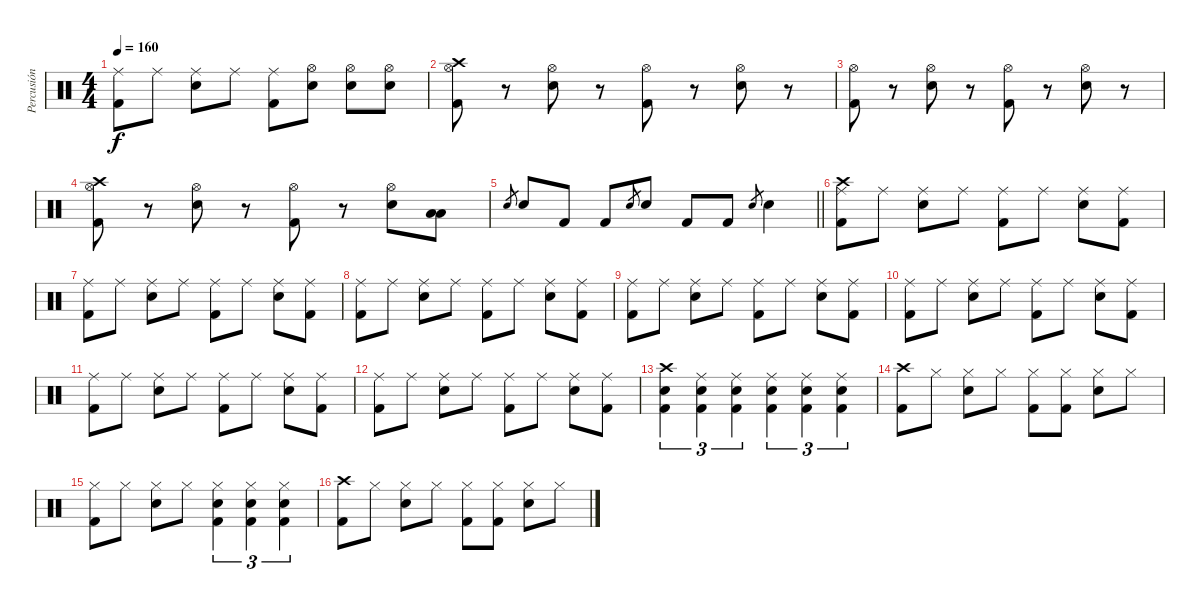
\track ("Percusión" "Percusión") {instrument percussion}
\staff {score}
\articulation defaults
\ts (4 4)
\tempo 160
\clef neutral
\ks c
("Ride (middle)" "Kick (hit) 2").8{dy f} "Ride (middle)".8 ("Ride (middle)" "Snare (hit) 2").8 "Ride (middle)".8 ("Ride (middle)" "Kick (hit) 2").8 ("Hi-Hat (open)" "Snare (hit) 2").8 ("Hi-Hat (open)" "Snare (hit) 2").8 ("Hi-Hat (open)" "Snare (hit) 2").8 |
("Crash high (hit)" "Hi-Hat (open)" "Kick (hit) 2").8 r.8 ("Hi-Hat (open)" "Snare (hit) 2").8 r.8 ("Hi-Hat (open)" "Kick (hit) 2").8 r.8 ("Hi-Hat (open)" "Snare (hit) 2").8 r.8 |
("Hi-Hat (open)" "Kick (hit) 2").8 r.8 ("Hi-Hat (open)" "Snare (hit) 2").8 r.8 ("Hi-Hat (open)" "Kick (hit) 2").8 r.8 ("Hi-Hat (open)" "Snare (hit) 2").8 r.8 |
("Crash high (hit)" "Hi-Hat (open)" "Kick (hit) 2").8 r.8 ("Hi-Hat (open)" "Snare (hit) 2").8 r.8 ("Hi-Hat (open)" "Kick (hit) 2").8 r.8 ("Hi-Hat (open)" "Snare (hit) 2").8 ("Low Tom (hit)" "Low Tom (hit)").8 |
\barLineRight lightlight "Snare (hit) 2".8{gr} "Snare (hit) 2".8 "Kick (hit) 2".8 "Kick (hit) 2".8 "Snare (hit) 2".8{gr} "Snare (hit) 2".8 "Kick (hit) 2".8 "Kick (hit) 2".8 "Snare (hit) 2".8{gr} "Snare (hit) 2".4
|
("Crash high (hit)" "Ride (middle)" "Kick (hit) 2").8 "Ride (middle)".8 ("Ride (middle)" "Snare (hit) 2").8 "Ride (middle)".8 ("Ride (middle)" "Kick (hit) 2").8 "Ride (middle)".8 ("Ride (middle)" "Snare (hit) 2").8 ("Ride (middle)" "Kick (hit) 2").8 |
("Ride (middle)" "Kick (hit) 2").8 "Ride (middle)".8 ("Ride (middle)" "Snare (hit) 2").8 "Ride (middle)".8 ("Ride (middle)" "Kick (hit) 2").8 "Ride (middle)".8 ("Ride (middle)" "Snare (hit) 2").8 ("Ride (middle)" "Kick (hit) 2").8 |
("Ride (middle)" "Kick (hit) 2").8 "Ride (middle)".8 ("Ride (middle)" "Snare (hit) 2").8 "Ride (middle)".8 ("Ride (middle)" "Kick (hit) 2").8 "Ride (middle)".8 ("Ride (middle)" "Snare (hit) 2").8 ("Ride (middle)" "Kick (hit) 2").8 |
("Ride (middle)" "Kick (hit) 2").8 "Ride (middle)".8 ("Ride (middle)" "Snare (hit) 2").8 "Ride (middle)".8 ("Ride (middle)" "Kick (hit) 2").8 "Ride (middle)".8 ("Ride (middle)" "Snare (hit) 2").8 ("Ride (middle)" "Kick (hit) 2").8 |
("Ride (middle)" "Kick (hit) 2").8 "Ride (middle)".8 ("Ride (middle)" "Snare (hit) 2").8 "Ride (middle)".8 ("Ride (middle)" "Kick (hit) 2").8 "Ride (middle)".8 ("Ride (middle)" "Snare (hit) 2").8 ("Ride (middle)" "Kick (hit) 2").8 |
("Ride (middle)" "Kick (hit) 2").8 "Ride (middle)".8 ("Ride (middle)" "Snare (hit) 2").8 "Ride (middle)".8 ("Ride (middle)" "Kick (hit) 2").8 "Ride (middle)".8 ("Ride (middle)" "Snare (hit) 2").8 ("Ride (middle)" "Kick (hit) 2").8 |
("Ride (middle)" "Kick (hit) 2").8 "Ride (middle)".8 ("Ride (middle)" "Snare (hit) 2").8 "Ride (middle)".8 ("Ride (middle)" "Kick (hit) 2").8 "Ride (middle)".8 ("Ride (middle)" "Snare (hit) 2").8 ("Ride (middle)" "Kick (hit) 2").8 |
("Crash high (hit)" "Snare (hit) 2" "Kick (hit) 2").4{tu (3 2)} ("Ride (middle)" "Snare (hit) 2" "Kick (hit) 2").4{tu (3 2)} ("Ride (middle)" "Snare (hit) 2" "Kick (hit) 2").4{tu (3 2)} ("Ride (middle)" "Snare (hit) 2" "Kick (hit) 2").4{tu (3 2)} ("Ride (middle)" "Snare (hit) 2" "Kick (hit) 2").4{tu (3 2)} ("Ride (middle)" "Snare (hit) 2" "Kick (hit) 2").4{tu (3 2)} |
("Crash high (hit)" "Kick (hit) 2").8 "Hi-Hat (closed)".8 ("Hi-Hat (closed)" "Snare (hit) 2").8 "Hi-Hat (closed)".8 ("Hi-Hat (closed)" "Kick (hit) 2").8 ("Hi-Hat (closed)" "Kick (hit) 2").8 ("Hi-Hat (closed)" "Snare (hit) 2").8 "Hi-Hat (closed)".8 |
("Hi-Hat (closed)" "Kick (hit) 2").8 "Hi-Hat (closed)".8 ("Hi-Hat (closed)" "Snare (hit) 2").8 "Hi-Hat (closed)".8 ("Hi-Hat (closed)" "Snare (hit) 2" "Kick (hit) 2").4{tu (3 2)} ("Hi-Hat (closed)" "Snare (hit) 2" "Kick (hit) 2").4{tu (3 2)} ("Hi-Hat (closed)" "Snare (hit) 2" "Kick (hit) 2").4{tu (3 2)} |
("Crash high (hit)" "Kick (hit) 2").8 "Hi-Hat (closed)".8 ("Hi-Hat (closed)" "Snare (hit) 2").8 "Hi-Hat (closed)".8 ("Hi-Hat (closed)" "Kick (hit) 2").8 ("Hi-Hat (closed)" "Kick (hit) 2").8 ("Hi-Hat (closed)" "Snare (hit) 2").8 "Hi-Hat (closed)".8
